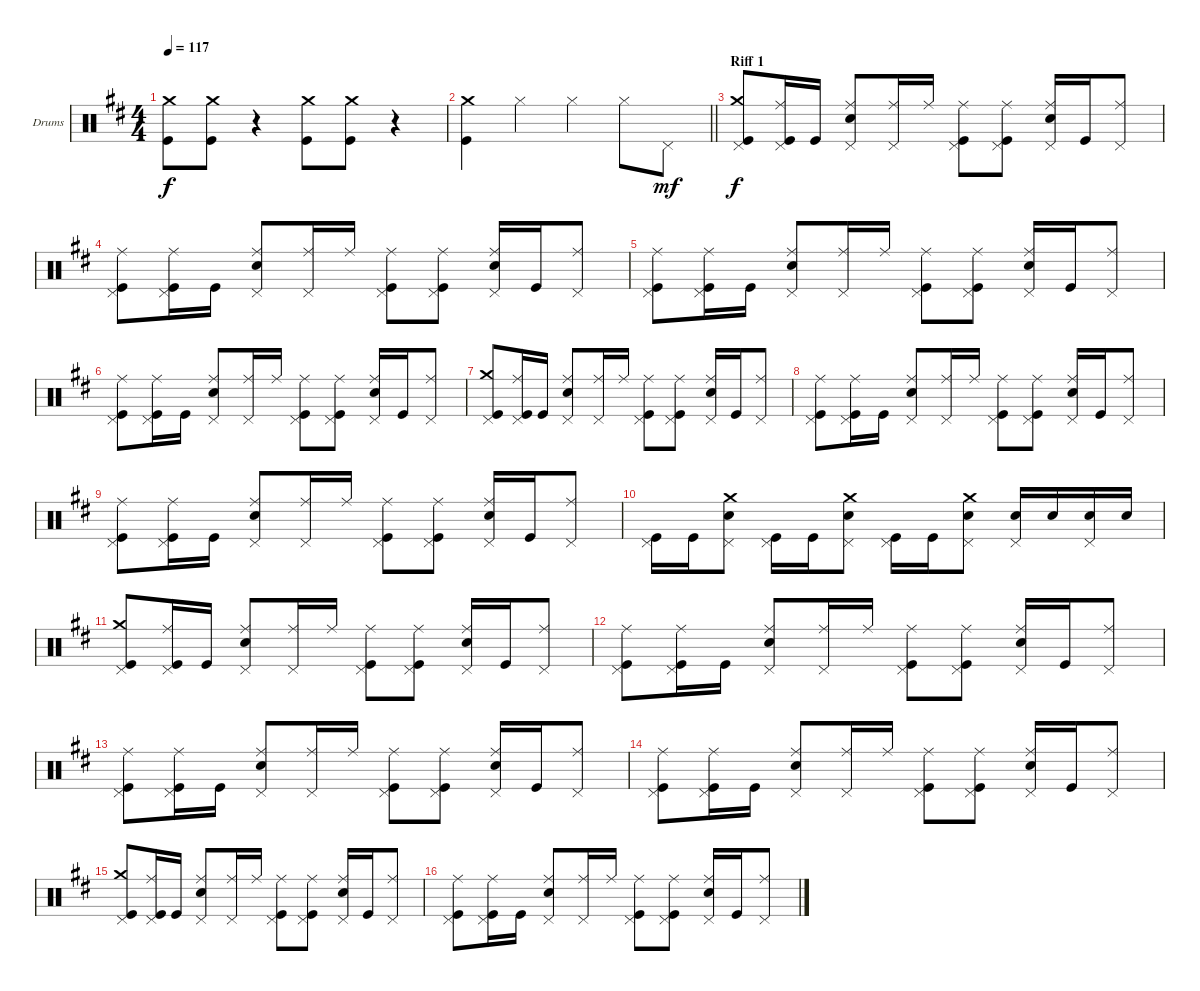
\bracketExtendMode groupsimilarinstruments
\firstSystemTrackNameOrientation horizontal
\otherSystemsTrackNameOrientation horizontal
\track ("Барабаны" "Drums") {instrument percussion}
\staff {score}
\articulation defaults
\ts (4 4)
\tempo 117
\clef neutral
\ks d
("Kick (hit)" "Crash medium (hit)").8{dy f} ("Kick (hit)" "Crash medium (hit)").8 r.4 ("Kick (hit)" "Crash medium (hit)").8 ("Kick (hit)" "Crash medium (hit)").8 r.4 |
\barLineRight lightlight
("Kick (hit)" "Crash medium (hit)").4 "Hi-Hat (closed)".4 "Hi-Hat (closed)".4 "Hi-Hat (closed)".8 "Pedal Hi-Hat (hit)".8{dy mf} |
\section ("" "Riff 1")
("Kick (hit)" "Crash medium (hit)" "Pedal Hi-Hat (hit)").8{dy f} ("Kick (hit)" "Ride (middle)" "Pedal Hi-Hat (hit)").16 "Kick (hit)".16 ("Snare (hit) 2" "Ride (middle)" "Pedal Hi-Hat (hit)").8 ("Ride (middle)" "Pedal Hi-Hat (hit)").16 "Ride (middle)".16 ("Kick (hit)" "Ride (middle)" "Pedal Hi-Hat (hit)").8 ("Ride (middle)" "Kick (hit)" "Pedal Hi-Hat (hit)").8 ("Snare (hit) 2" "Ride (middle)" "Pedal Hi-Hat (hit)").16 "Kick (hit)".16 ("Ride (middle)" "Pedal Hi-Hat (hit)").8 |
("Kick (hit)" "Ride (middle)" "Pedal Hi-Hat (hit)").8 ("Kick (hit)" "Ride (middle)" "Pedal Hi-Hat (hit)").16 "Kick (hit)".16 ("Snare (hit) 2" "Ride (middle)" "Pedal Hi-Hat (hit)").8 ("Ride (middle)" "Pedal Hi-Hat (hit)").16 "Ride (middle)".16 ("Kick (hit)" "Ride (middle)" "Pedal Hi-Hat (hit)").8 ("Ride (middle)" "Kick (hit)" "Pedal Hi-Hat (hit)").8 ("Snare (hit) 2" "Ride (middle)" "Pedal Hi-Hat (hit)").16 "Kick (hit)".16 ("Ride (middle)" "Pedal Hi-Hat (hit)").8 |
("Kick (hit)" "Ride (middle)" "Pedal Hi-Hat (hit)").8 ("Kick (hit)" "Ride (middle)" "Pedal Hi-Hat (hit)").16 "Kick (hit)".16 ("Snare (hit) 2" "Ride (middle)" "Pedal Hi-Hat (hit)").8 ("Ride (middle)" "Pedal Hi-Hat (hit)").16 "Ride (middle)".16 ("Kick (hit)" "Ride (middle)" "Pedal Hi-Hat (hit)").8 ("Ride (middle)" "Kick (hit)" "Pedal Hi-Hat (hit)").8 ("Snare (hit) 2" "Ride (middle)" "Pedal Hi-Hat (hit)").16 "Kick (hit)".16 ("Ride (middle)" "Pedal Hi-Hat (hit)").8 |
("Kick (hit)" "Ride (middle)" "Pedal Hi-Hat (hit)").8 ("Kick (hit)" "Ride (middle)" "Pedal Hi-Hat (hit)").16 "Kick (hit)".16 ("Snare (hit) 2" "Ride (middle)" "Pedal Hi-Hat (hit)").8 ("Ride (middle)" "Pedal Hi-Hat (hit)").16 "Ride (middle)".16 ("Kick (hit)" "Ride (middle)" "Pedal Hi-Hat (hit)").8 ("Ride (middle)" "Kick (hit)" "Pedal Hi-Hat (hit)").8 ("Snare (hit) 2" "Ride (middle)" "Pedal Hi-Hat (hit)").16 "Kick (hit)".16 ("Ride (middle)" "Pedal Hi-Hat (hit)").8 |
("Kick (hit)" "Crash medium (hit)" "Pedal Hi-Hat (hit)").8 ("Kick (hit)" "Ride (middle)" "Pedal Hi-Hat (hit)").16 "Kick (hit)".16 ("Snare (hit) 2" "Ride (middle)" "Pedal Hi-Hat (hit)").8 ("Ride (middle)" "Pedal Hi-Hat (hit)").16 "Ride (middle)".16 ("Kick (hit)" "Ride (middle)" "Pedal Hi-Hat (hit)").8 ("Ride (middle)" "Kick (hit)" "Pedal Hi-Hat (hit)").8 ("Snare (hit) 2" "Ride (middle)" "Pedal Hi-Hat (hit)").16 "Kick (hit)".16 ("Ride (middle)" "Pedal Hi-Hat (hit)").8 |
("Kick (hit)" "Ride (middle)" "Pedal Hi-Hat (hit)").8 ("Kick (hit)" "Ride (middle)" "Pedal Hi-Hat (hit)").16 "Kick (hit)".16 ("Snare (hit) 2" "Ride (middle)" "Pedal Hi-Hat (hit)").8 ("Ride (middle)" "Pedal Hi-Hat (hit)").16 "Ride (middle)".16 ("Kick (hit)" "Ride (middle)" "Pedal Hi-Hat (hit)").8 ("Ride (middle)" "Kick (hit)" "Pedal Hi-Hat (hit)").8 ("Snare (hit) 2" "Ride (middle)" "Pedal Hi-Hat (hit)").16 "Kick (hit)".16 ("Ride (middle)" "Pedal Hi-Hat (hit)").8 |
("Kick (hit)" "Ride (middle)" "Pedal Hi-Hat (hit)").8 ("Kick (hit)" "Ride (middle)" "Pedal Hi-Hat (hit)").16 "Kick (hit)".16 ("Snare (hit) 2" "Ride (middle)" "Pedal Hi-Hat (hit)").8 ("Ride (middle)" "Pedal Hi-Hat (hit)").16 "Ride (middle)".16 ("Kick (hit)" "Ride (middle)" "Pedal Hi-Hat (hit)").8 ("Ride (middle)" "Kick (hit)" "Pedal Hi-Hat (hit)").8 ("Snare (hit) 2" "Ride (middle)" "Pedal Hi-Hat (hit)").16 "Kick (hit)".16 ("Ride (middle)" "Pedal Hi-Hat (hit)").8 |
("Pedal Hi-Hat (hit)" "Kick (hit)").16 "Kick (hit)".16 ("Snare (hit) 2" "Crash medium (hit)" "Pedal Hi-Hat (hit)").8 ("Kick (hit)" "Pedal Hi-Hat (hit)").16 "Kick (hit)".16 ("Snare (hit) 2" "Crash medium (hit)" "Pedal Hi-Hat (hit)").8 ("Kick (hit)" "Pedal Hi-Hat (hit)").16 "Kick (hit)".16 ("Snare (hit) 2" "Crash medium (hit)" "Pedal Hi-Hat (hit)").8 ("Snare (hit) 2" "Pedal Hi-Hat (hit)").16 "Snare (hit) 2".16 ("Snare (hit) 2" "Pedal Hi-Hat (hit)").16 "Snare (hit) 2".16 |
("Kick (hit)" "Crash medium (hit)" "Pedal Hi-Hat (hit)").8 ("Kick (hit)" "Ride (middle)" "Pedal Hi-Hat (hit)").16 "Kick (hit)".16 ("Snare (hit) 2" "Ride (middle)" "Pedal Hi-Hat (hit)").8 ("Ride (middle)" "Pedal Hi-Hat (hit)").16 "Ride (middle)".16 ("Kick (hit)" "Ride (middle)" "Pedal Hi-Hat (hit)").8 ("Ride (middle)" "Kick (hit)" "Pedal Hi-Hat (hit)").8 ("Snare (hit) 2" "Ride (middle)" "Pedal Hi-Hat (hit)").16 "Kick (hit)".16 ("Ride (middle)" "Pedal Hi-Hat (hit)").8 |
("Kick (hit)" "Ride (middle)" "Pedal Hi-Hat (hit)").8 ("Kick (hit)" "Ride (middle)" "Pedal Hi-Hat (hit)").16 "Kick (hit)".16 ("Snare (hit) 2" "Ride (middle)" "Pedal Hi-Hat (hit)").8 ("Ride (middle)" "Pedal Hi-Hat (hit)").16 "Ride (middle)".16 ("Kick (hit)" "Ride (middle)" "Pedal Hi-Hat (hit)").8 ("Ride (middle)" "Kick (hit)" "Pedal Hi-Hat (hit)").8 ("Snare (hit) 2" "Ride (middle)" "Pedal Hi-Hat (hit)").16 "Kick (hit)".16 ("Ride (middle)" "Pedal Hi-Hat (hit)").8 |
("Kick (hit)" "Ride (middle)" "Pedal Hi-Hat (hit)").8 ("Kick (hit)" "Ride (middle)" "Pedal Hi-Hat (hit)").16 "Kick (hit)".16 ("Snare (hit) 2" "Ride (middle)" "Pedal Hi-Hat (hit)").8 ("Ride (middle)" "Pedal Hi-Hat (hit)").16 "Ride (middle)".16 ("Kick (hit)" "Ride (middle)" "Pedal Hi-Hat (hit)").8 ("Ride (middle)" "Kick (hit)" "Pedal Hi-Hat (hit)").8 ("Snare (hit) 2" "Ride (middle)" "Pedal Hi-Hat (hit)").16 "Kick (hit)".16 ("Ride (middle)" "Pedal Hi-Hat (hit)").8 |
("Kick (hit)" "Ride (middle)" "Pedal Hi-Hat (hit)").8 ("Kick (hit)" "Ride (middle)" "Pedal Hi-Hat (hit)").16 "Kick (hit)".16 ("Snare (hit) 2" "Ride (middle)" "Pedal Hi-Hat (hit)").8 ("Ride (middle)" "Pedal Hi-Hat (hit)").16 "Ride (middle)".16 ("Kick (hit)" "Ride (middle)" "Pedal Hi-Hat (hit)").8 ("Ride (middle)" "Kick (hit)" "Pedal Hi-Hat (hit)").8 ("Snare (hit) 2" "Ride (middle)" "Pedal Hi-Hat (hit)").16 "Kick (hit)".16 ("Ride (middle)" "Pedal Hi-Hat (hit)").8 |
("Kick (hit)" "Crash medium (hit)" "Pedal Hi-Hat (hit)").8 ("Kick (hit)" "Ride (middle)" "Pedal Hi-Hat (hit)").16 "Kick (hit)".16 ("Snare (hit) 2" "Ride (middle)" "Pedal Hi-Hat (hit)").8 ("Ride (middle)" "Pedal Hi-Hat (hit)").16 "Ride (middle)".16 ("Kick (hit)" "Ride (middle)" "Pedal Hi-Hat (hit)").8 ("Ride (middle)" "Kick (hit)" "Pedal Hi-Hat (hit)").8 ("Snare (hit) 2" "Ride (middle)" "Pedal Hi-Hat (hit)").16 "Kick (hit)".16 ("Ride (middle)" "Pedal Hi-Hat (hit)").8 |
("Kick (hit)" "Ride (middle)" "Pedal Hi-Hat (hit)").8 ("Kick (hit)" "Ride (middle)" "Pedal Hi-Hat (hit)").16 "Kick (hit)".16 ("Snare (hit) 2" "Ride (middle)" "Pedal Hi-Hat (hit)").8 ("Ride (middle)" "Pedal Hi-Hat (hit)").16 "Ride (middle)".16 ("Kick (hit)" "Ride (middle)" "Pedal Hi-Hat (hit)").8 ("Ride (middle)" "Kick (hit)" "Pedal Hi-Hat (hit)").8 ("Snare (hit) 2" "Ride (middle)" "Pedal Hi-Hat (hit)").16 "Kick (hit)".16 ("Ride (middle)" "Pedal Hi-Hat (hit)").8
